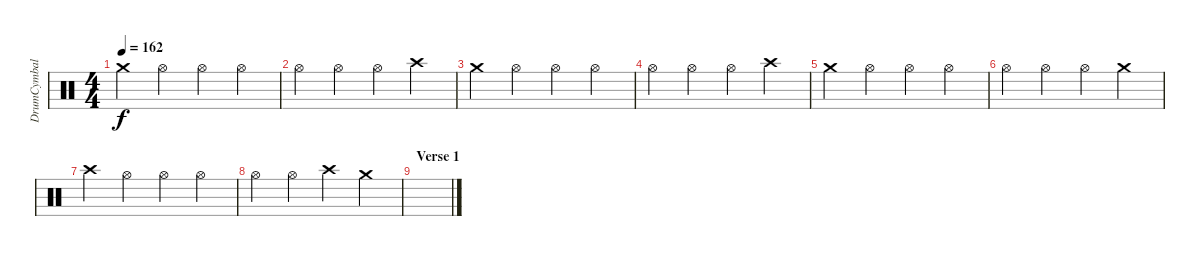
\track ("DrumCymbal" "DrumCymbal") {instrument percussion}
\staff {score}
\articulation defaults
\ts (4 4)
\tempo 162
\clef neutral
\ks c "Crash medium (hit)".4{dy f} "Hi-Hat (open)".4 "Hi-Hat (open)".4 "Hi-Hat (open)".4
|
"Hi-Hat (open)".4 "Hi-Hat (open)".4 "Hi-Hat (open)".4 "Crash high (hit)".4 |
"Crash medium (hit)".4 "Hi-Hat (open)".4 "Hi-Hat (open)".4 "Hi-Hat (open)".4 |
"Hi-Hat (open)".4 "Hi-Hat (open)".4 "Hi-Hat (open)".4 "Crash high (hit)".4 |
"Crash medium (hit)".4 "Hi-Hat (open)".4 "Hi-Hat (open)".4 "Hi-Hat (open)".4 |
"Hi-Hat (open)".4 "Hi-Hat (open)".4 "Hi-Hat (open)".4 "Crash medium (hit)".4 |
"Crash high (hit)".4 "Hi-Hat (open)".4 "Hi-Hat (open)".4 "Hi-Hat (open)".4 |
"Hi-Hat (open)".4 "Hi-Hat (open)".4 "Crash high (hit)".4 "Crash medium (hit)".4 |
\section ("" "Verse 1")
